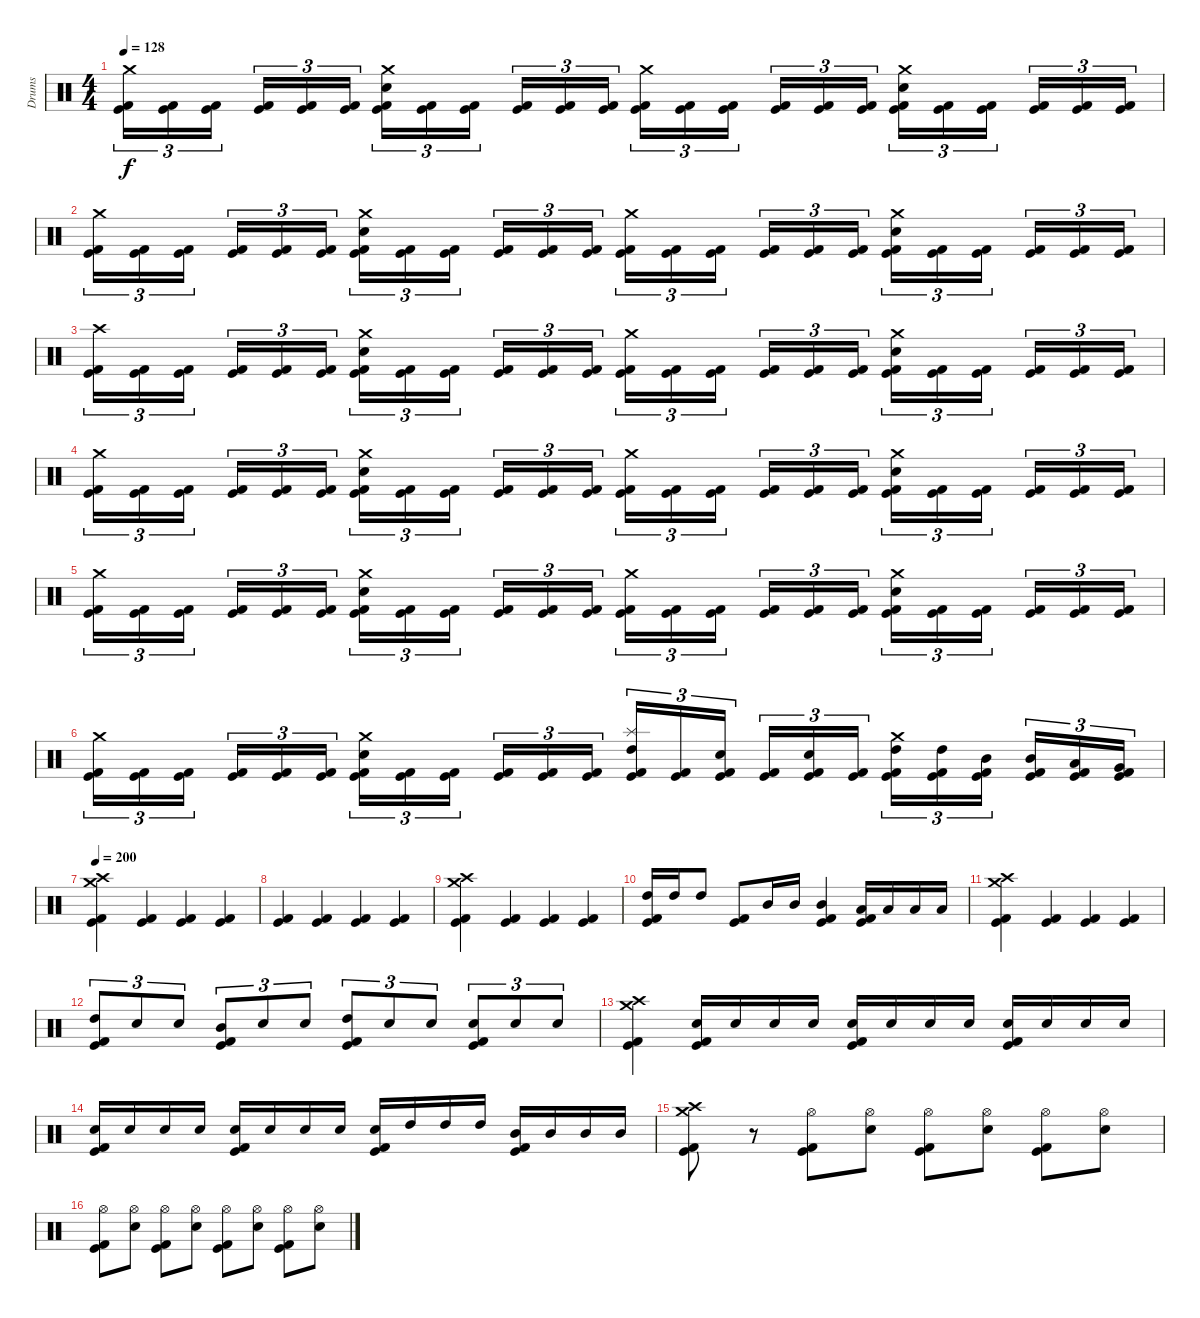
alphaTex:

\track ("Drums" "Drums") {instrument percussion}
\staff {score}
\articulation defaults
\ts (4 4)
\tempo 128
\clef neutral
\ks c
("Crash medium (hit)" "Kick (hit)" "Kick (hit) 2").16{tu (3 2) dy f} ("Kick (hit)" "Kick (hit) 2").16{tu (3 2)} ("Kick (hit)" "Kick (hit) 2").16{tu (3 2)} ("Kick (hit)" "Kick (hit) 2").16{tu (3 2)} ("Kick (hit)" "Kick (hit) 2").16{tu (3 2)} ("Kick (hit)" "Kick (hit) 2").16{tu (3 2)} ("Crash medium (hit)" "Electric Snare (hit)" "Kick (hit)" "Kick (hit) 2").16{tu (3 2)} ("Kick (hit)" "Kick (hit) 2").16{tu (3 2)} ("Kick (hit)" "Kick (hit) 2").16{tu (3 2)} ("Kick (hit)" "Kick (hit) 2").16{tu (3 2)} ("Kick (hit)" "Kick (hit) 2").16{tu (3 2)} ("Kick (hit)" "Kick (hit) 2").16{tu (3 2)} ("Crash medium (hit)" "Kick (hit)" "Kick (hit) 2").16{tu (3 2)} ("Kick (hit)" "Kick (hit) 2").16{tu (3 2)} ("Kick (hit)" "Kick (hit) 2").16{tu (3 2)} ("Kick (hit)" "Kick (hit) 2").16{tu (3 2)} ("Kick (hit)" "Kick (hit) 2").16{tu (3 2)} ("Kick (hit)" "Kick (hit) 2").16{tu (3 2)} ("Crash medium (hit)" "Electric Snare (hit)" "Kick (hit)" "Kick (hit) 2").16{tu (3 2)} ("Kick (hit)" "Kick (hit) 2").16{tu (3 2)} ("Kick (hit)" "Kick (hit) 2").16{tu (3 2)} ("Kick (hit)" "Kick (hit) 2").16{tu (3 2)} ("Kick (hit)" "Kick (hit) 2").16{tu (3 2)} ("Kick (hit)" "Kick (hit) 2").16{tu (3 2)} |
("Crash medium (hit)" "Kick (hit)" "Kick (hit) 2").16{tu (3 2)} ("Kick (hit)" "Kick (hit) 2").16{tu (3 2)} ("Kick (hit)" "Kick (hit) 2").16{tu (3 2)} ("Kick (hit)" "Kick (hit) 2").16{tu (3 2)} ("Kick (hit)" "Kick (hit) 2").16{tu (3 2)} ("Kick (hit)" "Kick (hit) 2").16{tu (3 2)} ("Crash medium (hit)" "Electric Snare (hit)" "Kick (hit)" "Kick (hit) 2").16{tu (3 2)} ("Kick (hit)" "Kick (hit) 2").16{tu (3 2)} ("Kick (hit)" "Kick (hit) 2").16{tu (3 2)} ("Kick (hit)" "Kick (hit) 2").16{tu (3 2)} ("Kick (hit)" "Kick (hit) 2").16{tu (3 2)} ("Kick (hit)" "Kick (hit) 2").16{tu (3 2)} ("Crash medium (hit)" "Kick (hit)" "Kick (hit) 2").16{tu (3 2)} ("Kick (hit)" "Kick (hit) 2").16{tu (3 2)} ("Kick (hit)" "Kick (hit) 2").16{tu (3 2)} ("Kick (hit)" "Kick (hit) 2").16{tu (3 2)} ("Kick (hit)" "Kick (hit) 2").16{tu (3 2)} ("Kick (hit)" "Kick (hit) 2").16{tu (3 2)} ("Crash medium (hit)" "Electric Snare (hit)" "Kick (hit)" "Kick (hit) 2").16{tu (3 2)} ("Kick (hit)" "Kick (hit) 2").16{tu (3 2)} ("Kick (hit)" "Kick (hit) 2").16{tu (3 2)} ("Kick (hit)" "Kick (hit) 2").16{tu (3 2)} ("Kick (hit)" "Kick (hit) 2").16{tu (3 2)} ("Kick (hit)" "Kick (hit) 2").16{tu (3 2)} |
("Crash high (hit)" "Kick (hit)" "Kick (hit) 2").16{tu (3 2)} ("Kick (hit)" "Kick (hit) 2").16{tu (3 2)} ("Kick (hit)" "Kick (hit) 2").16{tu (3 2)} ("Kick (hit)" "Kick (hit) 2").16{tu (3 2)} ("Kick (hit)" "Kick (hit) 2").16{tu (3 2)} ("Kick (hit)" "Kick (hit) 2").16{tu (3 2)} ("Crash medium (hit)" "Electric Snare (hit)" "Kick (hit)" "Kick (hit) 2").16{tu (3 2)} ("Kick (hit)" "Kick (hit) 2").16{tu (3 2)} ("Kick (hit)" "Kick (hit) 2").16{tu (3 2)} ("Kick (hit)" "Kick (hit) 2").16{tu (3 2)} ("Kick (hit)" "Kick (hit) 2").16{tu (3 2)} ("Kick (hit)" "Kick (hit) 2").16{tu (3 2)} ("Crash medium (hit)" "Kick (hit)" "Kick (hit) 2").16{tu (3 2)} ("Kick (hit)" "Kick (hit) 2").16{tu (3 2)} ("Kick (hit)" "Kick (hit) 2").16{tu (3 2)} ("Kick (hit)" "Kick (hit) 2").16{tu (3 2)} ("Kick (hit)" "Kick (hit) 2").16{tu (3 2)} ("Kick (hit)" "Kick (hit) 2").16{tu (3 2)} ("Crash medium (hit)" "Electric Snare (hit)" "Kick (hit)" "Kick (hit) 2").16{tu (3 2)} ("Kick (hit)" "Kick (hit) 2").16{tu (3 2)} ("Kick (hit)" "Kick (hit) 2").16{tu (3 2)} ("Kick (hit)" "Kick (hit) 2").16{tu (3 2)} ("Kick (hit)" "Kick (hit) 2").16{tu (3 2)} ("Kick (hit)" "Kick (hit) 2").16{tu (3 2)} |
("Crash medium (hit)" "Kick (hit)" "Kick (hit) 2").16{tu (3 2)} ("Kick (hit)" "Kick (hit) 2").16{tu (3 2)} ("Kick (hit)" "Kick (hit) 2").16{tu (3 2)} ("Kick (hit)" "Kick (hit) 2").16{tu (3 2)} ("Kick (hit)" "Kick (hit) 2").16{tu (3 2)} ("Kick (hit)" "Kick (hit) 2").16{tu (3 2)} ("Crash medium (hit)" "Electric Snare (hit)" "Kick (hit)" "Kick (hit) 2").16{tu (3 2)} ("Kick (hit)" "Kick (hit) 2").16{tu (3 2)} ("Kick (hit)" "Kick (hit) 2").16{tu (3 2)} ("Kick (hit)" "Kick (hit) 2").16{tu (3 2)} ("Kick (hit)" "Kick (hit) 2").16{tu (3 2)} ("Kick (hit)" "Kick (hit) 2").16{tu (3 2)} ("Crash medium (hit)" "Kick (hit)" "Kick (hit) 2").16{tu (3 2)} ("Kick (hit)" "Kick (hit) 2").16{tu (3 2)} ("Kick (hit)" "Kick (hit) 2").16{tu (3 2)} ("Kick (hit)" "Kick (hit) 2").16{tu (3 2)} ("Kick (hit)" "Kick (hit) 2").16{tu (3 2)} ("Kick (hit)" "Kick (hit) 2").16{tu (3 2)} ("Crash medium (hit)" "Electric Snare (hit)" "Kick (hit)" "Kick (hit) 2").16{tu (3 2)} ("Kick (hit)" "Kick (hit) 2").16{tu (3 2)} ("Kick (hit)" "Kick (hit) 2").16{tu (3 2)} ("Kick (hit)" "Kick (hit) 2").16{tu (3 2)} ("Kick (hit)" "Kick (hit) 2").16{tu (3 2)} ("Kick (hit)" "Kick (hit) 2").16{tu (3 2)} |
("Crash medium (hit)" "Kick (hit)" "Kick (hit) 2").16{tu (3 2)} ("Kick (hit)" "Kick (hit) 2").16{tu (3 2)} ("Kick (hit)" "Kick (hit) 2").16{tu (3 2)} ("Kick (hit)" "Kick (hit) 2").16{tu (3 2)} ("Kick (hit)" "Kick (hit) 2").16{tu (3 2)} ("Kick (hit)" "Kick (hit) 2").16{tu (3 2)} ("Crash medium (hit)" "Electric Snare (hit)" "Kick (hit)" "Kick (hit) 2").16{tu (3 2)} ("Kick (hit)" "Kick (hit) 2").16{tu (3 2)} ("Kick (hit)" "Kick (hit) 2").16{tu (3 2)} ("Kick (hit)" "Kick (hit) 2").16{tu (3 2)} ("Kick (hit)" "Kick (hit) 2").16{tu (3 2)} ("Kick (hit)" "Kick (hit) 2").16{tu (3 2)} ("Crash medium (hit)" "Kick (hit)" "Kick (hit) 2").16{tu (3 2)} ("Kick (hit)" "Kick (hit) 2").16{tu (3 2)} ("Kick (hit)" "Kick (hit) 2").16{tu (3 2)} ("Kick (hit)" "Kick (hit) 2").16{tu (3 2)} ("Kick (hit)" "Kick (hit) 2").16{tu (3 2)} ("Kick (hit)" "Kick (hit) 2").16{tu (3 2)} ("Crash medium (hit)" "Electric Snare (hit)" "Kick (hit)" "Kick (hit) 2").16{tu (3 2)} ("Kick (hit)" "Kick (hit) 2").16{tu (3 2)} ("Kick (hit)" "Kick (hit) 2").16{tu (3 2)} ("Kick (hit)" "Kick (hit) 2").16{tu (3 2)} ("Kick (hit)" "Kick (hit) 2").16{tu (3 2)} ("Kick (hit)" "Kick (hit) 2").16{tu (3 2)} |
("Crash medium (hit)" "Kick (hit)" "Kick (hit) 2").16{tu (3 2)} ("Kick (hit)" "Kick (hit) 2").16{tu (3 2)} ("Kick (hit)" "Kick (hit) 2").16{tu (3 2)} ("Kick (hit)" "Kick (hit) 2").16{tu (3 2)} ("Kick (hit)" "Kick (hit) 2").16{tu (3 2)} ("Kick (hit)" "Kick (hit) 2").16{tu (3 2)} ("Crash medium (hit)" "Electric Snare (hit)" "Kick (hit)" "Kick (hit) 2").16{tu (3 2)} ("Kick (hit)" "Kick (hit) 2").16{tu (3 2)} ("Kick (hit)" "Kick (hit) 2").16{tu (3 2)} ("Kick (hit)" "Kick (hit) 2").16{tu (3 2)} ("Kick (hit)" "Kick (hit) 2").16{tu (3 2)} ("Kick (hit)" "Kick (hit) 2").16{tu (3 2)} ("Splash (hit)" "High Tom (hit)" "Kick (hit)" "Kick (hit) 2").16{tu (3 2)} ("Kick (hit)" "Kick (hit) 2").16{tu (3 2)} ("Electric Snare (hit)" "Kick (hit)" "Kick (hit) 2").16{tu (3 2)} ("Kick (hit)" "Kick (hit) 2").16{tu (3 2)} ("Electric Snare (hit)" "Kick (hit)" "Kick (hit) 2").16{tu (3 2)} ("Kick (hit)" "Kick (hit) 2").16{tu (3 2)} ("Crash medium (hit)" "High Tom (hit)" "Kick (hit)" "Kick (hit) 2").16{tu (3 2)} ("High Tom (hit)" "Kick (hit)" "Kick (hit) 2").16{tu (3 2)} ("Mid Tom (hit)" "Kick (hit)" "Kick (hit) 2").16{tu (3 2)} ("Mid Tom (hit)" "Kick (hit)" "Kick (hit) 2").16{tu (3 2)} ("Low Tom (hit)" "Kick (hit)" "Kick (hit) 2").16{tu (3 2)} ("Very Low Tom (hit)" "Kick (hit)" "Kick (hit) 2").16{tu (3 2)} |
\tempo 200
("Crash medium (hit)" "Crash high (hit)" "Kick (hit)" "Kick (hit) 2").4 ("Kick (hit)" "Kick (hit) 2").4 ("Kick (hit)" "Kick (hit) 2").4 ("Kick (hit)" "Kick (hit) 2").4 |
("Kick (hit)" "Kick (hit) 2").4 ("Kick (hit)" "Kick (hit) 2").4 ("Kick (hit)" "Kick (hit) 2").4 ("Kick (hit)" "Kick (hit) 2").4 |
("Crash medium (hit)" "Crash high (hit)" "Kick (hit)" "Kick (hit) 2").4 ("Kick (hit)" "Kick (hit) 2").4 ("Kick (hit)" "Kick (hit) 2").4 ("Kick (hit)" "Kick (hit) 2").4 |
("High Tom (hit)" "Kick (hit)" "Kick (hit) 2").16 "High Tom (hit)".16 "High Tom (hit)".8 ("Kick (hit)" "Kick (hit) 2").8 "Mid Tom (hit)".16 "Mid Tom (hit)".16 ("Mid Tom (hit)" "Kick (hit)" "Kick (hit) 2").4 ("Low Tom (hit)" "Kick (hit)" "Kick (hit) 2").16 "Low Tom (hit)".16 "Low Tom (hit)".16 "Low Tom (hit)".16 |
("Crash medium (hit)" "Crash high (hit)" "Kick (hit)" "Kick (hit) 2").4 ("Kick (hit)" "Kick (hit) 2").4 ("Kick (hit)" "Kick (hit) 2").4 ("Kick (hit)" "Kick (hit) 2").4 |
("High Tom (hit)" "Kick (hit)" "Kick (hit) 2").8{tu (3 2)} "Electric Snare (hit)".8{tu (3 2)} "Electric Snare (hit)".8{tu (3 2)} ("Mid Tom (hit)" "Kick (hit)" "Kick (hit) 2").8{tu (3 2)} "Electric Snare (hit)".8{tu (3 2)} "Electric Snare (hit)".8{tu (3 2)} ("High Tom (hit)" "Kick (hit)" "Kick (hit) 2").8{tu (3 2)} "Electric Snare (hit)".8{tu (3 2)} "Electric Snare (hit)".8{tu (3 2)} ("Electric Snare (hit)" "Kick (hit)" "Kick (hit) 2").8{tu (3 2)} "Electric Snare (hit)".8{tu (3 2)} "Electric Snare (hit)".8{tu (3 2)} |
("Crash medium (hit)" "Crash high (hit)" "Kick (hit)" "Kick (hit) 2").4 ("Electric Snare (hit)" "Kick (hit)" "Kick (hit) 2").16 "Electric Snare (hit)".16 "Electric Snare (hit)".16 "Electric Snare (hit)".16 ("Electric Snare (hit)" "Kick (hit)" "Kick (hit) 2").16 "Electric Snare (hit)".16 "Electric Snare (hit)".16 "Electric Snare (hit)".16 ("Electric Snare (hit)" "Kick (hit)" "Kick (hit) 2").16 "Electric Snare (hit)".16 "Electric Snare (hit)".16 "Electric Snare (hit)".16 |
("Electric Snare (hit)" "Kick (hit)" "Kick (hit) 2").16 "Electric Snare (hit)".16 "Electric Snare (hit)".16 "Electric Snare (hit)".16 ("Electric Snare (hit)" "Kick (hit)" "Kick (hit) 2").16 "Electric Snare (hit)".16 "Electric Snare (hit)".16 "Electric Snare (hit)".16 ("Electric Snare (hit)" "Kick (hit)" "Kick (hit) 2").16 "High Tom (hit)".16 "High Tom (hit)".16 "High Tom (hit)".16 ("Mid Tom (hit)" "Kick (hit)" "Kick (hit) 2").16 "Mid Tom (hit)".16 "Mid Tom (hit)".16 "Mid Tom (hit)".16 |
("Crash medium (hit)" "Crash high (hit)" "Kick (hit)" "Kick (hit) 2").8 r.8 ("Hi-Hat (open)" "Kick (hit)" "Kick (hit) 2").8 ("Hi-Hat (open)" "Electric Snare (hit)").8 ("Hi-Hat (open)" "Kick (hit)" "Kick (hit) 2").8 ("Hi-Hat (open)" "Electric Snare (hit)").8 ("Hi-Hat (open)" "Kick (hit)" "Kick (hit) 2").8 ("Hi-Hat (open)" "Electric Snare (hit)").8 |
("Hi-Hat (open)" "Kick (hit)" "Kick (hit) 2").8 ("Hi-Hat (open)" "Electric Snare (hit)").8 ("Hi-Hat (open)" "Kick (hit)" "Kick (hit) 2").8 ("Hi-Hat (open)" "Electric Snare (hit)").8 ("Hi-Hat (open)" "Kick (hit)" "Kick (hit) 2").8 ("Hi-Hat (open)" "Electric Snare (hit)").8 ("Hi-Hat (open)" "Kick (hit)" "Kick (hit) 2").8 ("Hi-Hat (open)" "Electric Snare (hit)").8
